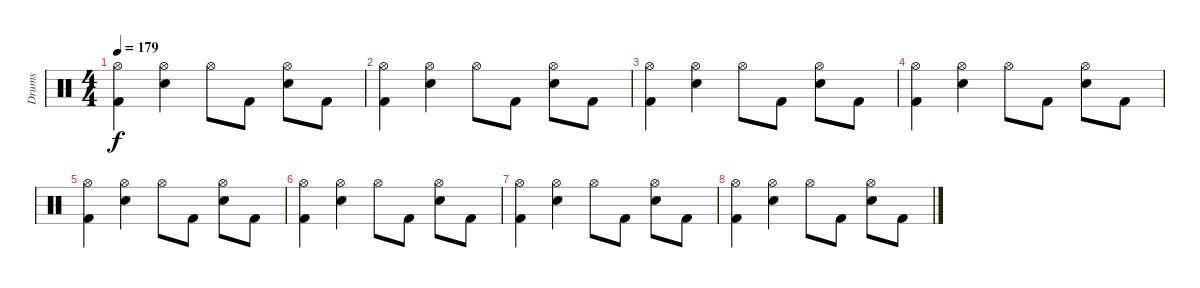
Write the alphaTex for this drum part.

\track ("Drums" "Drums") {instrument percussion}
\staff {score}
\articulation defaults
\ts (4 4)
\tempo 179
\clef neutral
\ks c
("Hi-Hat (open)" "Kick (hit) 2").4{dy f} ("Hi-Hat (open)" "Snare (hit) 2").4 "Hi-Hat (open)".8 "Kick (hit) 2".8 ("Hi-Hat (open)" "Snare (hit) 2").8 "Kick (hit) 2".8 |
("Hi-Hat (open)" "Kick (hit) 2").4 ("Hi-Hat (open)" "Snare (hit) 2").4 "Hi-Hat (open)".8 "Kick (hit) 2".8 ("Hi-Hat (open)" "Snare (hit) 2").8 "Kick (hit) 2".8 |
("Hi-Hat (open)" "Kick (hit) 2").4 ("Hi-Hat (open)" "Snare (hit) 2").4 "Hi-Hat (open)".8 "Kick (hit) 2".8 ("Hi-Hat (open)" "Snare (hit) 2").8 "Kick (hit) 2".8 |
("Hi-Hat (open)" "Kick (hit) 2").4 ("Hi-Hat (open)" "Snare (hit) 2").4 "Hi-Hat (open)".8 "Kick (hit) 2".8 ("Hi-Hat (open)" "Snare (hit) 2").8 "Kick (hit) 2".8 |
("Hi-Hat (open)" "Kick (hit) 2").4 ("Hi-Hat (open)" "Snare (hit) 2").4 "Hi-Hat (open)".8 "Kick (hit) 2".8 ("Hi-Hat (open)" "Snare (hit) 2").8 "Kick (hit) 2".8 |
("Hi-Hat (open)" "Kick (hit) 2").4 ("Hi-Hat (open)" "Snare (hit) 2").4 "Hi-Hat (open)".8 "Kick (hit) 2".8 ("Hi-Hat (open)" "Snare (hit) 2").8 "Kick (hit) 2".8 |
("Hi-Hat (open)" "Kick (hit) 2").4 ("Hi-Hat (open)" "Snare (hit) 2").4 "Hi-Hat (open)".8 "Kick (hit) 2".8 ("Hi-Hat (open)" "Snare (hit) 2").8 "Kick (hit) 2".8 |
("Hi-Hat (open)" "Kick (hit) 2").4 ("Hi-Hat (open)" "Snare (hit) 2").4 "Hi-Hat (open)".8 "Kick (hit) 2".8 ("Hi-Hat (open)" "Snare (hit) 2").8 "Kick (hit) 2".8
